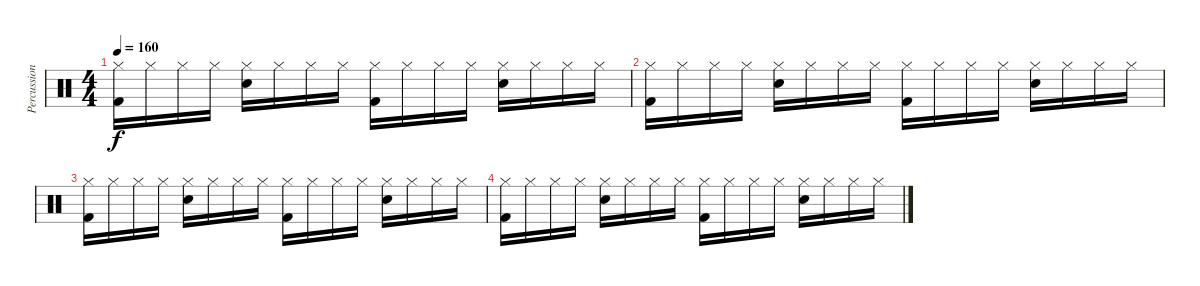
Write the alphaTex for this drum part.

\track ("Percussion" "Percussion") {instrument percussion}
\staff {score}
\articulation defaults
\ts (4 4)
\tempo 160
\clef neutral
\ks c
("Hi-Hat (closed)" "Kick (hit) 2").16{dy f} "Hi-Hat (closed)".16 "Hi-Hat (closed)".16 "Hi-Hat (closed)".16 ("Hi-Hat (closed)" "Snare (hit) 2").16 "Hi-Hat (closed)".16 "Hi-Hat (closed)".16 "Hi-Hat (closed)".16 ("Hi-Hat (closed)" "Kick (hit) 2").16 "Hi-Hat (closed)".16 "Hi-Hat (closed)".16 "Hi-Hat (closed)".16 ("Hi-Hat (closed)" "Snare (hit) 2").16 "Hi-Hat (closed)".16 "Hi-Hat (closed)".16 "Hi-Hat (closed)".16 |
("Hi-Hat (closed)" "Kick (hit) 2").16 "Hi-Hat (closed)".16 "Hi-Hat (closed)".16 "Hi-Hat (closed)".16 ("Hi-Hat (closed)" "Snare (hit) 2").16 "Hi-Hat (closed)".16 "Hi-Hat (closed)".16 "Hi-Hat (closed)".16 ("Hi-Hat (closed)" "Kick (hit) 2").16 "Hi-Hat (closed)".16 "Hi-Hat (closed)".16 "Hi-Hat (closed)".16 ("Hi-Hat (closed)" "Snare (hit) 2").16 "Hi-Hat (closed)".16 "Hi-Hat (closed)".16 "Hi-Hat (closed)".16 |
("Hi-Hat (closed)" "Kick (hit) 2").16 "Hi-Hat (closed)".16 "Hi-Hat (closed)".16 "Hi-Hat (closed)".16 ("Hi-Hat (closed)" "Snare (hit) 2").16 "Hi-Hat (closed)".16 "Hi-Hat (closed)".16 "Hi-Hat (closed)".16 ("Hi-Hat (closed)" "Kick (hit) 2").16 "Hi-Hat (closed)".16 "Hi-Hat (closed)".16 "Hi-Hat (closed)".16 ("Hi-Hat (closed)" "Snare (hit) 2").16 "Hi-Hat (closed)".16 "Hi-Hat (closed)".16 "Hi-Hat (closed)".16 |
("Hi-Hat (closed)" "Kick (hit) 2").16 "Hi-Hat (closed)".16 "Hi-Hat (closed)".16 "Hi-Hat (closed)".16 ("Hi-Hat (closed)" "Snare (hit) 2").16 "Hi-Hat (closed)".16 "Hi-Hat (closed)".16 "Hi-Hat (closed)".16 ("Hi-Hat (closed)" "Kick (hit) 2").16 "Hi-Hat (closed)".16 "Hi-Hat (closed)".16 "Hi-Hat (closed)".16 ("Hi-Hat (closed)" "Snare (hit) 2").16 "Hi-Hat (closed)".16 "Hi-Hat (closed)".16 "Hi-Hat (closed)".16
